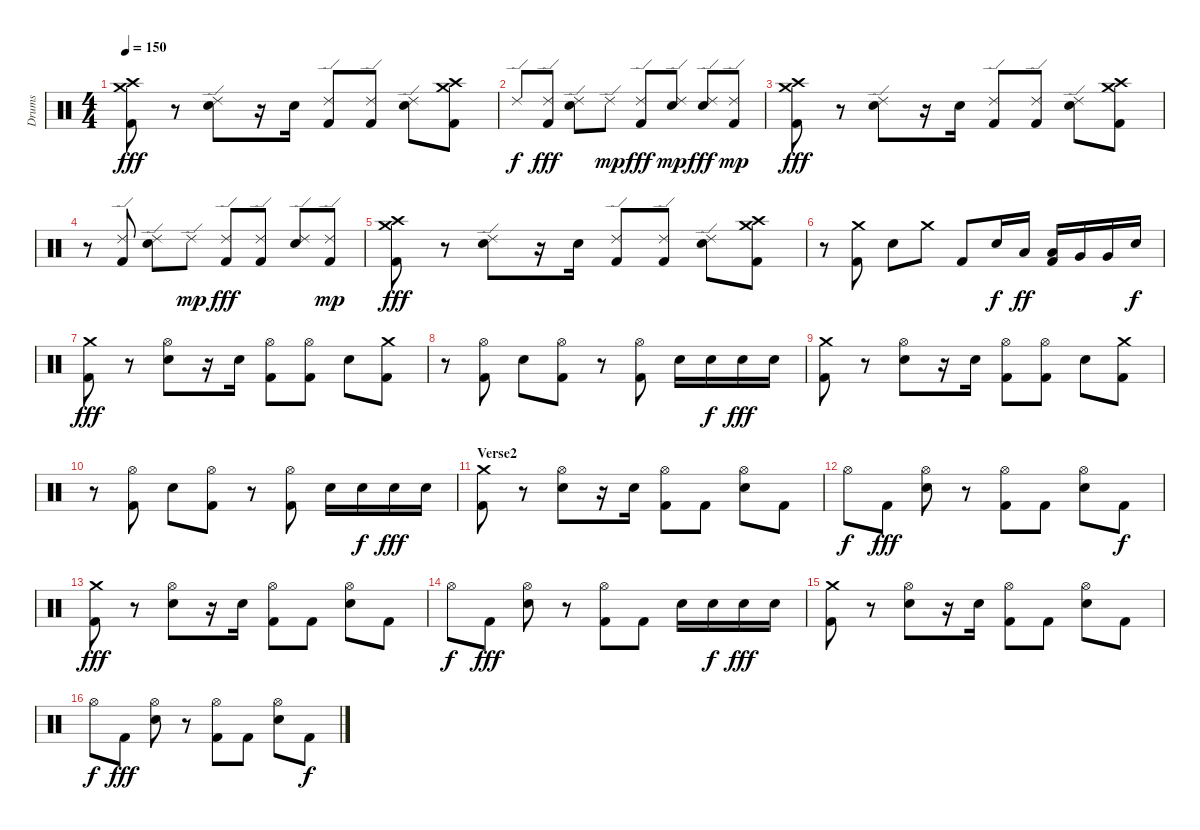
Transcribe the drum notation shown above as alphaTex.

\track ("Drums" "Drums") {instrument percussion}
\staff {score}
\articulation defaults
\ts (4 4)
\tempo 150
\clef neutral
\ks c
("Crash medium (hit)" "Crash high (hit)" "Kick (hit) 2").8{dy fff} r.8 ("Ride (edge) 2" "Electric Snare (hit)").8 r.16 "Electric Snare (hit)".16 ("Ride (edge) 2" "Kick (hit) 2").8 ("Ride (edge) 2" "Kick (hit) 2").8 ("Ride (edge) 2" "Electric Snare (hit)").8 ("Crash medium (hit)" "Crash high (hit)" "Kick (hit) 2").8 |
"Ride (edge) 2".8{dy f} ("Ride (edge) 2" "Kick (hit) 2").8{dy fff} ("Ride (edge) 2" "Electric Snare (hit)").8 "Ride (edge) 2".8{dy mp} ("Ride (edge) 2" "Kick (hit) 2").8{dy fff} ("Ride (edge) 2" "Electric Snare (hit)").8{dy mp} ("Ride (edge) 2" "Electric Snare (hit)").8{dy fff} ("Ride (edge) 2" "Kick (hit) 2").8{dy mp} |
("Crash high (hit)" "Crash medium (hit)" "Kick (hit) 2").8{dy fff} r.8 ("Ride (edge) 2" "Electric Snare (hit)").8 r.16 "Electric Snare (hit)".16 ("Ride (edge) 2" "Kick (hit) 2").8 ("Ride (edge) 2" "Kick (hit) 2").8 ("Ride (edge) 2" "Electric Snare (hit)").8 ("Crash medium (hit)" "Crash high (hit)" "Kick (hit) 2").8 |
r.8 ("Ride (edge) 2" "Kick (hit) 2").8 ("Ride (edge) 2" "Electric Snare (hit)").8 "Ride (edge) 2".8{dy mp} ("Ride (edge) 2" "Kick (hit) 2").8{dy fff} ("Ride (edge) 2" "Kick (hit) 2").8 ("Ride (edge) 2" "Electric Snare (hit)").8 ("Ride (edge) 2" "Kick (hit) 2").8{dy mp} |
("Crash high (hit)" "Crash medium (hit)" "Kick (hit) 2").8{dy fff} r.8 ("Ride (edge) 2" "Electric Snare (hit)").8 r.16 "Electric Snare (hit)".16 ("Ride (edge) 2" "Kick (hit) 2").8 ("Ride (edge) 2" "Kick (hit) 2").8 ("Ride (edge) 2" "Electric Snare (hit)").8 ("Crash high (hit)" "Crash medium (hit)" "Kick (hit) 2").8 |
r.8 ("Crash medium (hit)" "Kick (hit) 2").8 "Electric Snare (hit)".8 "Crash medium (hit)".8 "Kick (hit) 2".8 "Electric Snare (hit)".16{dy f} "Low Tom (hit)".16{dy ff} ("Low Tom (hit)" "Kick (hit) 2").16 "Very Low Tom (hit)".16 "Very Low Tom (hit)".16 "Electric Snare (hit)".16{dy f} |
("Crash medium (hit)" "Kick (hit) 2").8{dy fff} r.8 ("Hi-Hat (open)" "Electric Snare (hit)").8 r.16 "Electric Snare (hit)".16 ("Hi-Hat (open)" "Kick (hit) 2").8 ("Hi-Hat (open)" "Kick (hit) 2").8 "Electric Snare (hit)".8 ("Crash medium (hit)" "Kick (hit) 2").8 |
r.8 ("Hi-Hat (open)" "Kick (hit) 2").8 "Electric Snare (hit)".8 ("Hi-Hat (open)" "Kick (hit) 2").8 r.8 ("Hi-Hat (open)" "Kick (hit) 2").8 "Electric Snare (hit)".16 "Electric Snare (hit)".16{dy f} "Electric Snare (hit)".16{dy fff} "Electric Snare (hit)".16 |
("Crash medium (hit)" "Kick (hit) 2").8 r.8 ("Hi-Hat (open)" "Electric Snare (hit)").8 r.16 "Electric Snare (hit)".16 ("Hi-Hat (open)" "Kick (hit) 2").8 ("Hi-Hat (open)" "Kick (hit) 2").8 "Electric Snare (hit)".8 ("Crash medium (hit)" "Kick (hit) 2").8 |
r.8 ("Hi-Hat (open)" "Kick (hit) 2").8 "Electric Snare (hit)".8 ("Hi-Hat (open)" "Kick (hit) 2").8 r.8 ("Hi-Hat (open)" "Kick (hit) 2").8 "Electric Snare (hit)".16 "Electric Snare (hit)".16{dy f} "Electric Snare (hit)".16{dy fff} "Electric Snare (hit)".16 |
\section ("" "Verse2")
("Crash medium (hit)" "Kick (hit) 2").8 r.8 ("Hi-Hat (open)" "Electric Snare (hit)").8 r.16 "Electric Snare (hit)".16 ("Hi-Hat (open)" "Kick (hit) 2").8 "Kick (hit) 2".8 ("Hi-Hat (open)" "Electric Snare (hit)").8 "Kick (hit) 2".8 |
"Hi-Hat (open)".8{dy f} "Kick (hit) 2".8{dy fff} ("Hi-Hat (open)" "Electric Snare (hit)").8 r.8 ("Hi-Hat (open)" "Kick (hit) 2").8 "Kick (hit) 2".8 ("Hi-Hat (open)" "Electric Snare (hit)").8 "Kick (hit) 2".8{dy f} |
("Crash medium (hit)" "Kick (hit) 2").8{dy fff} r.8 ("Hi-Hat (open)" "Electric Snare (hit)").8 r.16 "Electric Snare (hit)".16 ("Hi-Hat (open)" "Kick (hit) 2").8 "Kick (hit) 2".8 ("Hi-Hat (open)" "Electric Snare (hit)").8 "Kick (hit) 2".8 |
"Hi-Hat (open)".8{dy f} "Kick (hit) 2".8{dy fff} ("Hi-Hat (open)" "Electric Snare (hit)").8 r.8 ("Hi-Hat (open)" "Kick (hit) 2").8 "Kick (hit) 2".8 "Electric Snare (hit)".16 "Electric Snare (hit)".16{dy f} "Electric Snare (hit)".16{dy fff} "Electric Snare (hit)".16 |
("Crash medium (hit)" "Kick (hit) 2").8 r.8 ("Hi-Hat (open)" "Electric Snare (hit)").8 r.16 "Electric Snare (hit)".16 ("Hi-Hat (open)" "Kick (hit) 2").8 "Kick (hit) 2".8 ("Hi-Hat (open)" "Electric Snare (hit)").8 "Kick (hit) 2".8 |
"Hi-Hat (open)".8{dy f} "Kick (hit) 2".8{dy fff} ("Hi-Hat (open)" "Electric Snare (hit)").8 r.8 ("Hi-Hat (open)" "Kick (hit) 2").8 "Kick (hit) 2".8 ("Hi-Hat (open)" "Electric Snare (hit)").8 "Kick (hit) 2".8{dy f}
